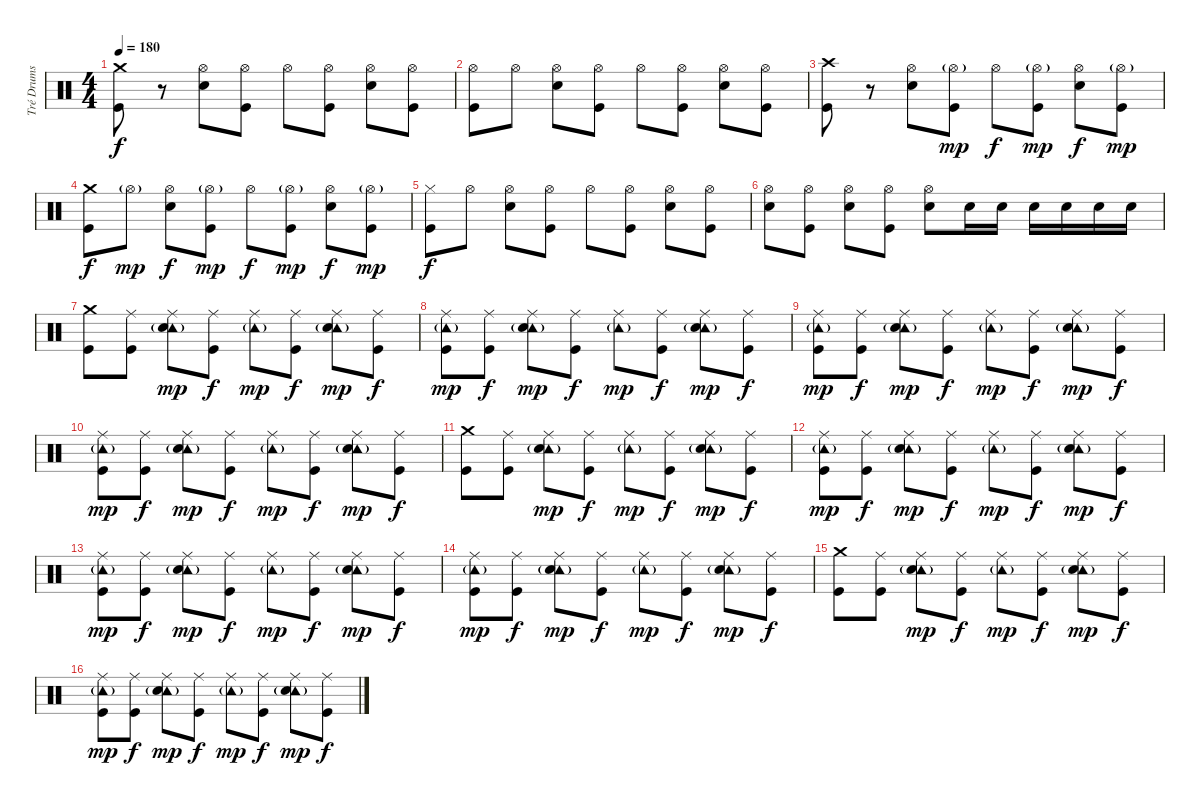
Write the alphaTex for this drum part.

\track ("Tré Drums" "Tré Drums") {instrument percussion}
\staff {score}
\articulation defaults
\ts (4 4)
\tempo 180
\clef neutral
\ks c
("Crash medium (hit)" "Kick (hit)").8{dy f} r.8 ("Hi-Hat (open)" "Electric Snare (hit)").8 ("Hi-Hat (open)" "Kick (hit)").8 "Hi-Hat (open)".8 ("Hi-Hat (open)" "Kick (hit)").8 ("Hi-Hat (open)" "Electric Snare (hit)").8 ("Hi-Hat (open)" "Kick (hit)").8 |
("Hi-Hat (open)" "Kick (hit)").8 "Hi-Hat (open)".8 ("Hi-Hat (open)" "Electric Snare (hit)").8 ("Hi-Hat (open)" "Kick (hit)").8 "Hi-Hat (open)".8 ("Hi-Hat (open)" "Kick (hit)").8 ("Hi-Hat (open)" "Electric Snare (hit)").8 ("Hi-Hat (open)" "Kick (hit)").8 |
("Crash high (hit)" "Kick (hit)").8 r.8 ("Hi-Hat (open)" "Electric Snare (hit)").8 ("Hi-Hat (open)"{g} "Kick (hit)").8{dy mp} "Hi-Hat (open)".8{dy f} ("Hi-Hat (open)"{g} "Kick (hit)").8{dy mp} ("Hi-Hat (open)" "Electric Snare (hit)").8{dy f} ("Hi-Hat (open)"{g} "Kick (hit)").8{dy mp} |
("Crash medium (hit)" "Kick (hit)").8{dy f} "Hi-Hat (open)"{g}.8{dy mp} ("Hi-Hat (open)" "Electric Snare (hit)").8{dy f} ("Hi-Hat (open)"{g} "Kick (hit)").8{dy mp} "Hi-Hat (open)".8{dy f} ("Hi-Hat (open)"{g} "Kick (hit)").8{dy mp} ("Hi-Hat (open)" "Electric Snare (hit)").8{dy f} ("Hi-Hat (open)"{g} "Kick (hit)").8{dy mp} |
("Hi-Hat (closed)" "Kick (hit)").8{dy f} "Hi-Hat (open)".8 ("Hi-Hat (open)" "Electric Snare (hit)").8 ("Hi-Hat (open)" "Kick (hit)").8 "Hi-Hat (open)".8 ("Hi-Hat (open)" "Kick (hit)").8 ("Hi-Hat (open)" "Electric Snare (hit)").8 ("Hi-Hat (open)" "Kick (hit)").8 |
("Hi-Hat (open)" "Electric Snare (hit)").8 ("Hi-Hat (open)" "Kick (hit)").8 ("Hi-Hat (open)" "Electric Snare (hit)").8 ("Hi-Hat (open)" "Kick (hit)").8 ("Hi-Hat (open)" "Electric Snare (hit)").8 "Electric Snare (hit)".16 "Electric Snare (hit)".16 "Electric Snare (hit)".16 "Electric Snare (hit)".16 "Electric Snare (hit)".16 "Electric Snare (hit)".16 |
("Crash medium (hit)" "Kick (hit)").8 ("Ride (middle)" "Kick (hit)").8 ("Tambourine (hit)"{g} "Ride (middle)" "Electric Snare (hit)").8{dy mp} ("Ride (middle)" "Kick (hit)").8{dy f} ("Tambourine (hit)"{g} "Ride (middle)").8{dy mp} ("Ride (middle)" "Kick (hit)").8{dy f} ("Tambourine (hit)"{g} "Ride (middle)" "Electric Snare (hit)").8{dy mp} ("Ride (middle)" "Kick (hit)").8{dy f} |
("Tambourine (hit)"{g} "Ride (middle)" "Kick (hit)").8{dy mp} ("Ride (middle)" "Kick (hit)").8{dy f} ("Tambourine (hit)"{g} "Ride (middle)" "Electric Snare (hit)").8{dy mp} ("Ride (middle)" "Kick (hit)").8{dy f} ("Tambourine (hit)"{g} "Ride (middle)").8{dy mp} ("Ride (middle)" "Kick (hit)").8{dy f} ("Tambourine (hit)"{g} "Ride (middle)" "Electric Snare (hit)").8{dy mp} ("Ride (middle)" "Kick (hit)").8{dy f} |
("Tambourine (hit)"{g} "Ride (middle)" "Kick (hit)").8{dy mp} ("Ride (middle)" "Kick (hit)").8{dy f} ("Tambourine (hit)"{g} "Ride (middle)" "Electric Snare (hit)").8{dy mp} ("Ride (middle)" "Kick (hit)").8{dy f} ("Tambourine (hit)"{g} "Ride (middle)").8{dy mp} ("Ride (middle)" "Kick (hit)").8{dy f} ("Tambourine (hit)"{g} "Ride (middle)" "Electric Snare (hit)").8{dy mp} ("Ride (middle)" "Kick (hit)").8{dy f} |
("Tambourine (hit)"{g} "Ride (middle)" "Kick (hit)").8{dy mp} ("Ride (middle)" "Kick (hit)").8{dy f} ("Tambourine (hit)"{g} "Ride (middle)" "Electric Snare (hit)").8{dy mp} ("Ride (middle)" "Kick (hit)").8{dy f} ("Tambourine (hit)"{g} "Ride (middle)").8{dy mp} ("Ride (middle)" "Kick (hit)").8{dy f} ("Tambourine (hit)"{g} "Ride (middle)" "Electric Snare (hit)").8{dy mp} ("Ride (middle)" "Kick (hit)").8{dy f} |
("Crash medium (hit)" "Kick (hit)").8 ("Ride (middle)" "Kick (hit)").8 ("Tambourine (hit)"{g} "Ride (middle)" "Electric Snare (hit)").8{dy mp} ("Ride (middle)" "Kick (hit)").8{dy f} ("Tambourine (hit)"{g} "Ride (middle)").8{dy mp} ("Ride (middle)" "Kick (hit)").8{dy f} ("Tambourine (hit)"{g} "Ride (middle)" "Electric Snare (hit)").8{dy mp} ("Ride (middle)" "Kick (hit)").8{dy f} |
("Tambourine (hit)"{g} "Ride (middle)" "Kick (hit)").8{dy mp} ("Ride (middle)" "Kick (hit)").8{dy f} ("Tambourine (hit)"{g} "Ride (middle)" "Electric Snare (hit)").8{dy mp} ("Ride (middle)" "Kick (hit)").8{dy f} ("Tambourine (hit)"{g} "Ride (middle)").8{dy mp} ("Ride (middle)" "Kick (hit)").8{dy f} ("Tambourine (hit)"{g} "Ride (middle)" "Electric Snare (hit)").8{dy mp} ("Ride (middle)" "Kick (hit)").8{dy f} |
("Tambourine (hit)"{g} "Ride (middle)" "Kick (hit)").8{dy mp} ("Ride (middle)" "Kick (hit)").8{dy f} ("Tambourine (hit)"{g} "Ride (middle)" "Electric Snare (hit)").8{dy mp} ("Ride (middle)" "Kick (hit)").8{dy f} ("Tambourine (hit)"{g} "Ride (middle)").8{dy mp} ("Ride (middle)" "Kick (hit)").8{dy f} ("Tambourine (hit)"{g} "Ride (middle)" "Electric Snare (hit)").8{dy mp} ("Ride (middle)" "Kick (hit)").8{dy f} |
("Tambourine (hit)"{g} "Ride (middle)" "Kick (hit)").8{dy mp} ("Ride (middle)" "Kick (hit)").8{dy f} ("Tambourine (hit)"{g} "Ride (middle)" "Electric Snare (hit)").8{dy mp} ("Ride (middle)" "Kick (hit)").8{dy f} ("Tambourine (hit)"{g} "Ride (middle)").8{dy mp} ("Ride (middle)" "Kick (hit)").8{dy f} ("Tambourine (hit)"{g} "Ride (middle)" "Electric Snare (hit)").8{dy mp} ("Ride (middle)" "Kick (hit)").8{dy f} |
("Crash medium (hit)" "Kick (hit)").8 ("Ride (middle)" "Kick (hit)").8 ("Tambourine (hit)"{g} "Ride (middle)" "Electric Snare (hit)").8{dy mp} ("Ride (middle)" "Kick (hit)").8{dy f} ("Tambourine (hit)"{g} "Ride (middle)").8{dy mp} ("Ride (middle)" "Kick (hit)").8{dy f} ("Tambourine (hit)"{g} "Ride (middle)" "Electric Snare (hit)").8{dy mp} ("Ride (middle)" "Kick (hit)").8{dy f} |
("Tambourine (hit)"{g} "Ride (middle)" "Kick (hit)").8{dy mp} ("Ride (middle)" "Kick (hit)").8{dy f} ("Tambourine (hit)"{g} "Ride (middle)" "Electric Snare (hit)").8{dy mp} ("Ride (middle)" "Kick (hit)").8{dy f} ("Tambourine (hit)"{g} "Ride (middle)").8{dy mp} ("Ride (middle)" "Kick (hit)").8{dy f} ("Tambourine (hit)"{g} "Ride (middle)" "Electric Snare (hit)").8{dy mp} ("Ride (middle)" "Kick (hit)").8{dy f}
